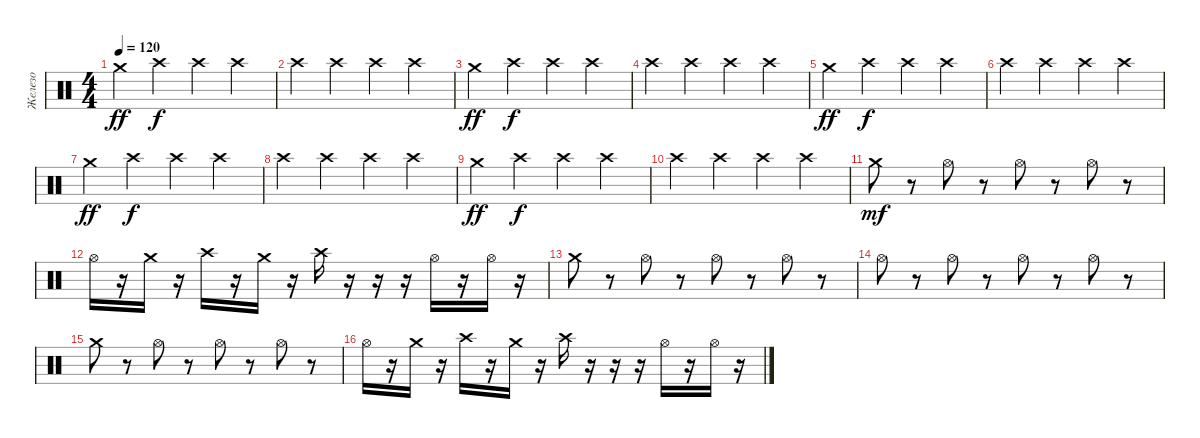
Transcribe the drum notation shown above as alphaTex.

\track ("Железо" "Железо") {instrument percussion}
\staff {score}
\articulation defaults
\ts (4 4)
\tempo 120
\clef neutral
\ks c "Crash medium (hit)".4{dy ff} "Crash high (hit)".4{dy f} "Crash high (hit)".4 "Crash high (hit)".4
|
"Crash high (hit)".4 "Crash high (hit)".4 "Crash high (hit)".4 "Crash high (hit)".4 |
"Crash medium (hit)".4{dy ff} "Crash high (hit)".4{dy f} "Crash high (hit)".4 "Crash high (hit)".4 |
"Crash high (hit)".4 "Crash high (hit)".4 "Crash high (hit)".4 "Crash high (hit)".4 |
"Crash medium (hit)".4{dy ff} "Crash high (hit)".4{dy f} "Crash high (hit)".4 "Crash high (hit)".4 |
"Crash high (hit)".4 "Crash high (hit)".4 "Crash high (hit)".4 "Crash high (hit)".4 |
"Crash medium (hit)".4{dy ff} "Crash high (hit)".4{dy f} "Crash high (hit)".4 "Crash high (hit)".4 |
"Crash high (hit)".4 "Crash high (hit)".4 "Crash high (hit)".4 "Crash high (hit)".4 |
"Crash medium (hit)".4{dy ff} "Crash high (hit)".4{dy f} "Crash high (hit)".4 "Crash high (hit)".4 |
"Crash high (hit)".4 "Crash high (hit)".4 "Crash high (hit)".4 "Crash high (hit)".4 |
"Crash medium (hit)".8{dy mf} r.8 "Hi-Hat (open)".8 r.8 "Hi-Hat (open)".8 r.8 "Hi-Hat (open)".8 r.8 |
"Hi-Hat (open)".16 r.16 "Crash medium (hit)".16 r.16 "Crash high (hit)".16 r.16 "Crash medium (hit)".16 r.16 "Crash high (hit)".16 r.16 r.16 r.16 "Hi-Hat (open)".16 r.16 "Hi-Hat (open)".16 r.16 |
"Crash medium (hit)".8 r.8 "Hi-Hat (open)".8 r.8 "Hi-Hat (open)".8 r.8 "Hi-Hat (open)".8 r.8 |
"Hi-Hat (open)".8 r.8 "Hi-Hat (open)".8 r.8 "Hi-Hat (open)".8 r.8 "Hi-Hat (open)".8 r.8 |
"Crash medium (hit)".8 r.8 "Hi-Hat (open)".8 r.8 "Hi-Hat (open)".8 r.8 "Hi-Hat (open)".8 r.8 |
"Hi-Hat (open)".16 r.16 "Crash medium (hit)".16 r.16 "Crash high (hit)".16 r.16 "Crash medium (hit)".16 r.16 "Crash high (hit)".16 r.16 r.16 r.16 "Hi-Hat (open)".16 r.16 "Hi-Hat (open)".16 r.16
